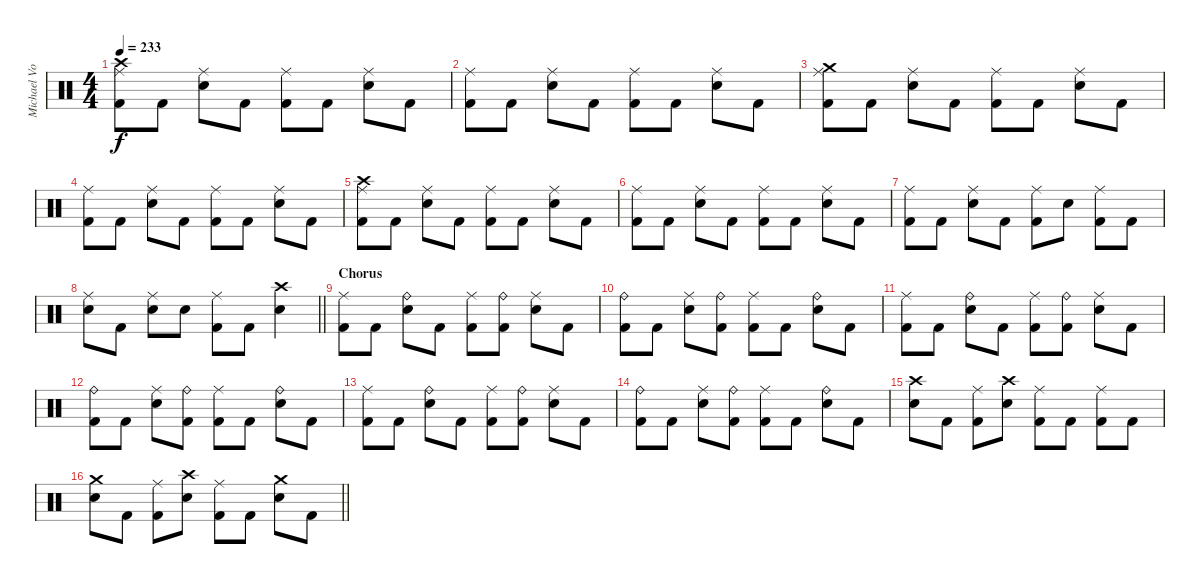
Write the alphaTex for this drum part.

\track ("Michael Von Knorring" "Michael Vo") {instrument percussion}
\staff {score}
\articulation defaults
\ts (4 4)
\tempo 233
\clef neutral
\ks c
("Crash high (hit)" "Ride (middle)" "Kick (hit) 2").8{dy f} "Kick (hit) 2".8 ("Ride (middle)" "Snare (hit) 2").8 "Kick (hit) 2".8 ("Ride (middle)" "Kick (hit) 2").8 "Kick (hit) 2".8 ("Ride (middle)" "Snare (hit) 2").8 "Kick (hit) 2".8 |
("Ride (middle)" "Kick (hit) 2").8 "Kick (hit) 2".8 ("Ride (middle)" "Snare (hit) 2").8 "Kick (hit) 2".8 ("Ride (middle)" "Kick (hit) 2").8 "Kick (hit) 2".8 ("Ride (middle)" "Snare (hit) 2").8 "Kick (hit) 2".8 |
("Crash medium (hit)" "Ride (middle)" "Kick (hit) 2").8 "Kick (hit) 2".8 ("Ride (middle)" "Snare (hit) 2").8 "Kick (hit) 2".8 ("Ride (middle)" "Kick (hit) 2").8 "Kick (hit) 2".8 ("Ride (middle)" "Snare (hit) 2").8 "Kick (hit) 2".8 |
("Ride (middle)" "Kick (hit) 2").8 "Kick (hit) 2".8 ("Ride (middle)" "Snare (hit) 2").8 "Kick (hit) 2".8 ("Ride (middle)" "Kick (hit) 2").8 "Kick (hit) 2".8 ("Ride (middle)" "Snare (hit) 2").8 "Kick (hit) 2".8 |
("Crash high (hit)" "Ride (middle)" "Kick (hit) 2").8 "Kick (hit) 2".8 ("Ride (middle)" "Snare (hit) 2").8 "Kick (hit) 2".8 ("Ride (middle)" "Kick (hit) 2").8 "Kick (hit) 2".8 ("Ride (middle)" "Snare (hit) 2").8 "Kick (hit) 2".8 |
("Ride (middle)" "Kick (hit) 2").8 "Kick (hit) 2".8 ("Ride (middle)" "Snare (hit) 2").8 "Kick (hit) 2".8 ("Ride (middle)" "Kick (hit) 2").8 "Kick (hit) 2".8 ("Ride (middle)" "Snare (hit) 2").8 "Kick (hit) 2".8 |
("Ride (middle)" "Kick (hit) 2").8 "Kick (hit) 2".8 ("Ride (middle)" "Snare (hit) 2").8 "Kick (hit) 2".8 ("Ride (middle)" "Kick (hit) 2").8 "Snare (hit) 2".8 ("Ride (middle)" "Kick (hit) 2").8 "Kick (hit) 2".8 |
\barLineRight lightlight
("Ride (middle)" "Snare (hit) 2").8 "Kick (hit) 2".8 ("Ride (middle)" "Snare (hit) 2").8 "Snare (hit) 2".8 ("Ride (middle)" "Kick (hit) 2").8 "Kick (hit) 2".8 ("Crash high (hit)" "Snare (hit) 2").4 |
\section ("" "Chorus")
("Ride (middle)" "Kick (hit) 2").8 "Kick (hit) 2".8 ("Ride (bell)" "Snare (hit) 2").8 "Kick (hit) 2".8 ("Ride (middle)" "Kick (hit) 2").8 ("Ride (bell)" "Kick (hit) 2").8 ("Ride (middle)" "Snare (hit) 2").8 "Kick (hit) 2".8 |
("Ride (bell)" "Kick (hit) 2").8 "Kick (hit) 2".8 ("Ride (middle)" "Snare (hit) 2").8 ("Ride (bell)" "Kick (hit) 2").8 ("Ride (middle)" "Kick (hit) 2").8 "Kick (hit) 2".8 ("Ride (bell)" "Snare (hit) 2").8 "Kick (hit) 2".8 |
("Ride (middle)" "Kick (hit) 2").8 "Kick (hit) 2".8 ("Ride (bell)" "Snare (hit) 2").8 "Kick (hit) 2".8 ("Ride (middle)" "Kick (hit) 2").8 ("Ride (bell)" "Kick (hit) 2").8 ("Ride (middle)" "Snare (hit) 2").8 "Kick (hit) 2".8 |
("Ride (bell)" "Kick (hit) 2").8 "Kick (hit) 2".8 ("Ride (middle)" "Snare (hit) 2").8 ("Ride (bell)" "Kick (hit) 2").8 ("Ride (middle)" "Kick (hit) 2").8 "Kick (hit) 2".8 ("Ride (bell)" "Snare (hit) 2").8 "Kick (hit) 2".8 |
("Ride (middle)" "Kick (hit) 2").8 "Kick (hit) 2".8 ("Ride (bell)" "Snare (hit) 2").8 "Kick (hit) 2".8 ("Ride (middle)" "Kick (hit) 2").8 ("Ride (bell)" "Kick (hit) 2").8 ("Ride (middle)" "Snare (hit) 2").8 "Kick (hit) 2".8 |
("Ride (bell)" "Kick (hit) 2").8 "Kick (hit) 2".8 ("Ride (middle)" "Snare (hit) 2").8 ("Ride (bell)" "Kick (hit) 2").8 ("Ride (middle)" "Kick (hit) 2").8 "Kick (hit) 2".8 ("Ride (bell)" "Snare (hit) 2").8 "Kick (hit) 2".8 |
("Crash high (hit)" "Snare (hit) 2").8 "Kick (hit) 2".8 ("Ride (middle)" "Kick (hit) 2").8 ("Crash high (hit)" "Snare (hit) 2").8 ("Ride (middle)" "Kick (hit) 2").8 "Kick (hit) 2".8 ("Ride (middle)" "Kick (hit) 2").8 "Kick (hit) 2".8 |
\barLineRight lightlight
("Crash medium (hit)" "Snare (hit) 2").8 "Kick (hit) 2".8 ("Ride (middle)" "Kick (hit) 2").8 ("Crash high (hit)" "Snare (hit) 2").8 ("Ride (middle)" "Kick (hit) 2").8 "Kick (hit) 2".8 ("Crash medium (hit)" "Snare (hit) 2").8 "Kick (hit) 2".8
